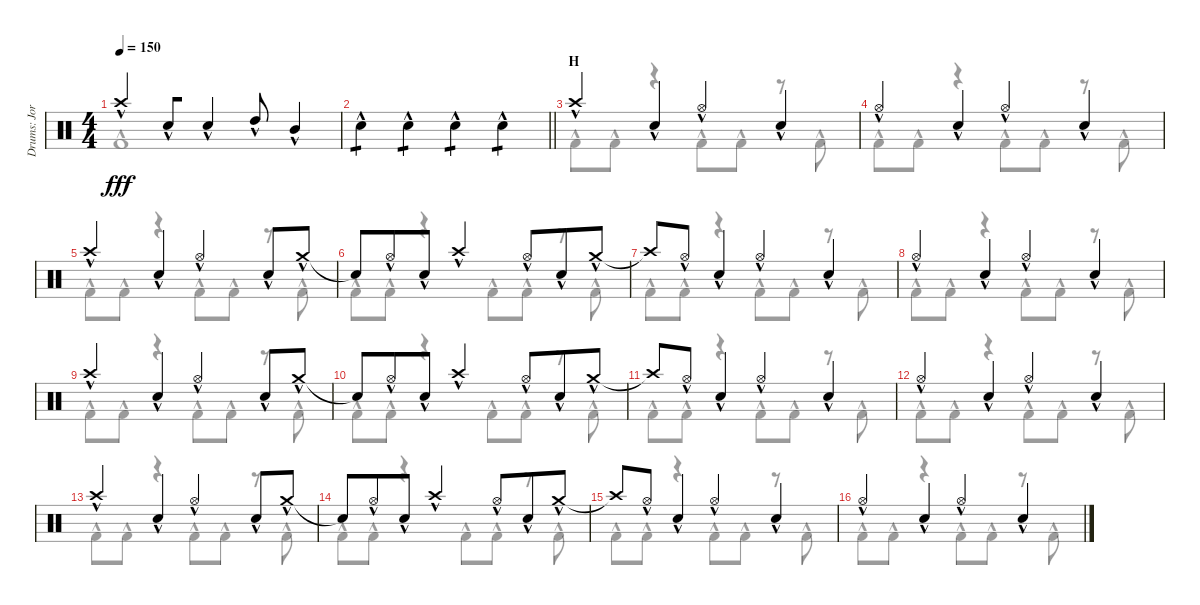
\track ("Drums: Jorg" "Drums: Jor") {instrument percussion}
\staff {score}
\articulation defaults
\voice
\ts (4 4)
\tempo 150
\clef neutral
\ks c "Crash high (hit)"{hac}.4{dy fff} "Snare (hit) 2"{hac}.8{beam merge} "Snare (hit) 2"{hac}.4 "High Tom (hit)"{hac}.8 "Mid Tom (hit)"{hac}.4
|
\barLineRight lightlight "Snare (hit) 2"{hac}.4{tp 1} "Snare (hit) 2"{hac}.4{tp 1 beam merge} "Snare (hit) 2"{hac}.4{tp 1} "Snare (hit) 2"{hac}.4{tp 1}
|
\section ("" "H")
"Crash high (hit)"{hac}.4{beam merge} "Snare (hit) 2"{hac}.4 "Hi-Hat (open)"{hac}.4{beam merge} "Snare (hit) 2"{hac}.4 |
"Hi-Hat (open)"{hac}.4{beam merge} "Snare (hit) 2"{hac}.4 "Hi-Hat (open)"{hac}.4{beam merge} "Snare (hit) 2"{hac}.4 |
"Crash high (hit)"{hac}.4{beam merge} "Snare (hit) 2"{hac}.4 "Hi-Hat (open)"{hac}.4{beam merge} "Snare (hit) 2"{hac}.8 "Crash medium (hit)"{hac}.8 |
"Snare (hit)"{t}.8 "Hi-Hat (open)"{hac}.8{beam merge} "Snare (hit) 2"{hac}.8 "Crash high (hit)"{hac}.4 "Hi-Hat (open)"{hac}.8{beam merge} "Snare (hit) 2"{hac}.8 "Crash medium (hit)"{hac}.8 |
"Crash high (hit)"{t}.8 "Hi-Hat (open)"{hac}.8{beam merge} "Snare (hit) 2"{hac}.4 "Hi-Hat (open)"{hac}.4{beam merge} "Snare (hit) 2"{hac}.4 |
"Hi-Hat (open)"{hac}.4{beam merge} "Snare (hit) 2"{hac}.4 "Hi-Hat (open)"{hac}.4{beam merge} "Snare (hit) 2"{hac}.4 |
"Crash high (hit)"{hac}.4{beam merge} "Snare (hit) 2"{hac}.4 "Hi-Hat (open)"{hac}.4{beam merge} "Snare (hit) 2"{hac}.8 "Crash medium (hit)"{hac}.8 |
"Snare (hit)"{t}.8 "Hi-Hat (open)"{hac}.8{beam merge} "Snare (hit) 2"{hac}.8 "Crash high (hit)"{hac}.4 "Hi-Hat (open)"{hac}.8{beam merge} "Snare (hit) 2"{hac}.8 "Crash medium (hit)"{hac}.8 |
"Crash high (hit)"{t}.8 "Hi-Hat (open)"{hac}.8{beam merge} "Snare (hit) 2"{hac}.4 "Hi-Hat (open)"{hac}.4{beam merge} "Snare (hit) 2"{hac}.4 |
"Hi-Hat (open)"{hac}.4{beam merge} "Snare (hit) 2"{hac}.4 "Hi-Hat (open)"{hac}.4{beam merge} "Snare (hit) 2"{hac}.4 |
"Crash high (hit)"{hac}.4{beam merge} "Snare (hit) 2"{hac}.4 "Hi-Hat (open)"{hac}.4{beam merge} "Snare (hit) 2"{hac}.8 "Crash medium (hit)"{hac}.8 |
"Snare (hit)"{t}.8 "Hi-Hat (open)"{hac}.8{beam merge} "Snare (hit) 2"{hac}.8 "Crash high (hit)"{hac}.4 "Hi-Hat (open)"{hac}.8{beam merge} "Snare (hit) 2"{hac}.8 "Crash medium (hit)"{hac}.8 |
"Crash high (hit)"{t}.8 "Hi-Hat (open)"{hac}.8{beam merge} "Snare (hit) 2"{hac}.4 "Hi-Hat (open)"{hac}.4{beam merge} "Snare (hit) 2"{hac}.4 |
"Hi-Hat (open)"{hac}.4{beam merge} "Snare (hit) 2"{hac}.4 "Hi-Hat (open)"{hac}.4{beam merge} "Snare (hit) 2"{hac}.4
\voice
\clef neutral
\ottava regular
\simile none
\ks c "Kick (hit) 2"{hac}.1{dy fff}
|
\barLineRight lightlight
|
"Kick (hit) 2"{hac}.8 "Kick (hit) 2"{hac}.8 r.4 "Kick (hit) 2"{hac}.8 "Kick (hit) 2"{hac}.8 r.8 "Kick (hit) 2"{hac}.8 |
"Kick (hit) 2"{hac}.8 "Kick (hit) 2"{hac}.8 r.4 "Kick (hit) 2"{hac}.8 "Kick (hit) 2"{hac}.8 r.8 "Kick (hit) 2"{hac}.8 |
"Kick (hit) 2"{hac}.8 "Kick (hit) 2"{hac}.8 r.4 "Kick (hit) 2"{hac}.8 "Kick (hit) 2"{hac}.8 r.8 "Kick (hit) 2"{hac}.8 |
"Kick (hit) 2"{hac}.8 "Kick (hit) 2"{hac}.8 r.4 "Kick (hit) 2"{hac}.8 "Kick (hit) 2"{hac}.8 r.8 "Kick (hit) 2"{hac}.8 |
"Kick (hit) 2"{hac}.8 "Kick (hit) 2"{hac}.8 r.4 "Kick (hit) 2"{hac}.8 "Kick (hit) 2"{hac}.8 r.8 "Kick (hit) 2"{hac}.8 |
"Kick (hit) 2"{hac}.8 "Kick (hit) 2"{hac}.8 r.4 "Kick (hit) 2"{hac}.8 "Kick (hit) 2"{hac}.8 r.8 "Kick (hit) 2"{hac}.8 |
"Kick (hit) 2"{hac}.8 "Kick (hit) 2"{hac}.8 r.4 "Kick (hit) 2"{hac}.8 "Kick (hit) 2"{hac}.8 r.8 "Kick (hit) 2"{hac}.8 |
"Kick (hit) 2"{hac}.8 "Kick (hit) 2"{hac}.8 r.4 "Kick (hit) 2"{hac}.8 "Kick (hit) 2"{hac}.8 r.8 "Kick (hit) 2"{hac}.8 |
"Kick (hit) 2"{hac}.8 "Kick (hit) 2"{hac}.8 r.4 "Kick (hit) 2"{hac}.8 "Kick (hit) 2"{hac}.8 r.8 "Kick (hit) 2"{hac}.8 |
"Kick (hit) 2"{hac}.8 "Kick (hit) 2"{hac}.8 r.4 "Kick (hit) 2"{hac}.8 "Kick (hit) 2"{hac}.8 r.8 "Kick (hit) 2"{hac}.8 |
"Kick (hit) 2"{hac}.8 "Kick (hit) 2"{hac}.8 r.4 "Kick (hit) 2"{hac}.8 "Kick (hit) 2"{hac}.8 r.8 "Kick (hit) 2"{hac}.8 |
"Kick (hit) 2"{hac}.8 "Kick (hit) 2"{hac}.8 r.4 "Kick (hit) 2"{hac}.8 "Kick (hit) 2"{hac}.8 r.8 "Kick (hit) 2"{hac}.8 |
"Kick (hit) 2"{hac}.8 "Kick (hit) 2"{hac}.8 r.4 "Kick (hit) 2"{hac}.8 "Kick (hit) 2"{hac}.8 r.8 "Kick (hit) 2"{hac}.8 |
"Kick (hit) 2"{hac}.8 "Kick (hit) 2"{hac}.8 r.4 "Kick (hit) 2"{hac}.8 "Kick (hit) 2"{hac}.8 r.8 "Kick (hit) 2"{hac}.8
